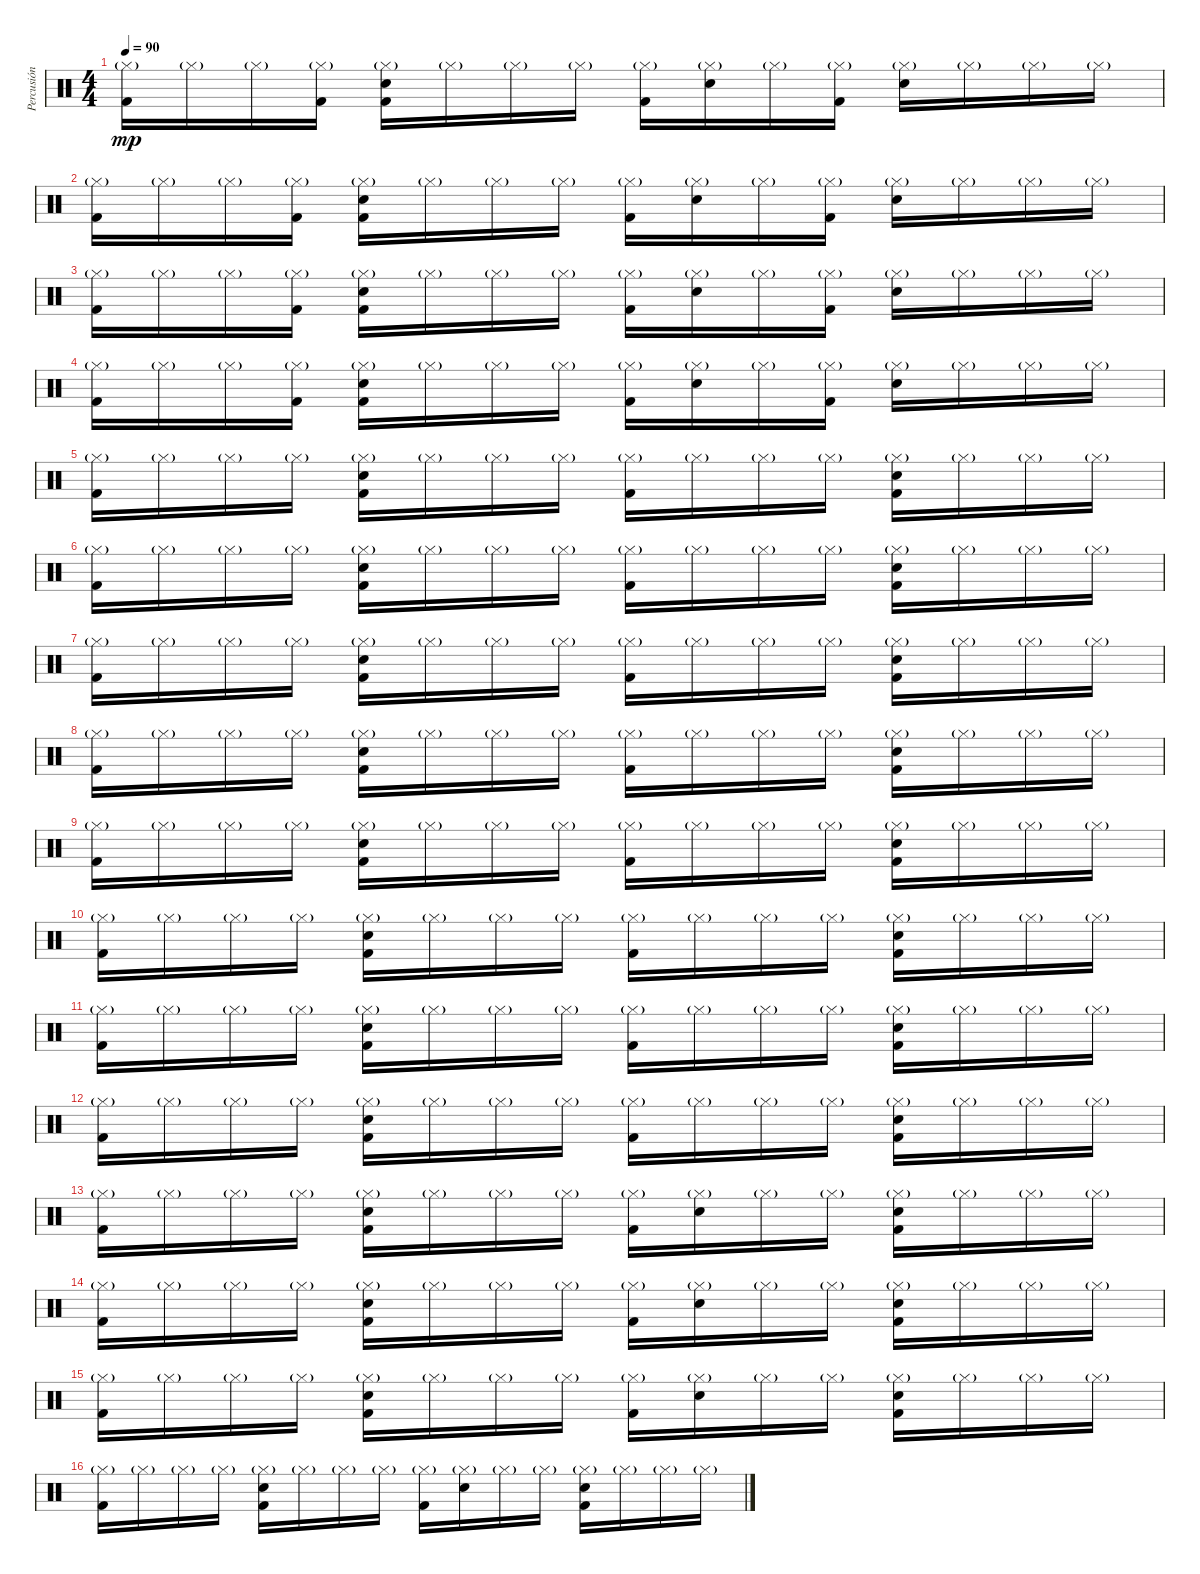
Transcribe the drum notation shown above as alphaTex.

\track ("Percusión" "Percusión") {instrument percussion}
\staff {score}
\articulation defaults
\ts (4 4)
\tempo 90
\clef neutral
\ks c
("Kick (hit) 2" "Hi-Hat (closed)"{g}).16{dy mp} "Hi-Hat (closed)"{g}.16 "Hi-Hat (closed)"{g}.16 ("Kick (hit) 2" "Hi-Hat (closed)"{g}).16 ("Kick (hit) 2" "Snare (hit) 2" "Hi-Hat (closed)"{g}).16 "Hi-Hat (closed)"{g}.16 "Hi-Hat (closed)"{g}.16 "Hi-Hat (closed)"{g}.16 ("Kick (hit) 2" "Hi-Hat (closed)"{g}).16 ("Snare (hit) 2" "Hi-Hat (closed)"{g}).16 "Hi-Hat (closed)"{g}.16 ("Kick (hit) 2" "Hi-Hat (closed)"{g}).16 ("Snare (hit) 2" "Hi-Hat (closed)"{g}).16 "Hi-Hat (closed)"{g}.16 "Hi-Hat (closed)"{g}.16 "Hi-Hat (closed)"{g}.16 |
("Kick (hit) 2" "Hi-Hat (closed)"{g}).16 "Hi-Hat (closed)"{g}.16 "Hi-Hat (closed)"{g}.16 ("Kick (hit) 2" "Hi-Hat (closed)"{g}).16 ("Kick (hit) 2" "Snare (hit) 2" "Hi-Hat (closed)"{g}).16 "Hi-Hat (closed)"{g}.16 "Hi-Hat (closed)"{g}.16 "Hi-Hat (closed)"{g}.16 ("Kick (hit) 2" "Hi-Hat (closed)"{g}).16 ("Snare (hit) 2" "Hi-Hat (closed)"{g}).16 "Hi-Hat (closed)"{g}.16 ("Kick (hit) 2" "Hi-Hat (closed)"{g}).16 ("Snare (hit) 2" "Hi-Hat (closed)"{g}).16 "Hi-Hat (closed)"{g}.16 "Hi-Hat (closed)"{g}.16 "Hi-Hat (closed)"{g}.16 |
("Kick (hit) 2" "Hi-Hat (closed)"{g}).16 "Hi-Hat (closed)"{g}.16 "Hi-Hat (closed)"{g}.16 ("Kick (hit) 2" "Hi-Hat (closed)"{g}).16 ("Kick (hit) 2" "Snare (hit) 2" "Hi-Hat (closed)"{g}).16 "Hi-Hat (closed)"{g}.16 "Hi-Hat (closed)"{g}.16 "Hi-Hat (closed)"{g}.16 ("Kick (hit) 2" "Hi-Hat (closed)"{g}).16 ("Snare (hit) 2" "Hi-Hat (closed)"{g}).16 "Hi-Hat (closed)"{g}.16 ("Kick (hit) 2" "Hi-Hat (closed)"{g}).16 ("Snare (hit) 2" "Hi-Hat (closed)"{g}).16 "Hi-Hat (closed)"{g}.16 "Hi-Hat (closed)"{g}.16 "Hi-Hat (closed)"{g}.16 |
("Kick (hit) 2" "Hi-Hat (closed)"{g}).16 "Hi-Hat (closed)"{g}.16 "Hi-Hat (closed)"{g}.16 ("Kick (hit) 2" "Hi-Hat (closed)"{g}).16 ("Kick (hit) 2" "Snare (hit) 2" "Hi-Hat (closed)"{g}).16 "Hi-Hat (closed)"{g}.16 "Hi-Hat (closed)"{g}.16 "Hi-Hat (closed)"{g}.16 ("Kick (hit) 2" "Hi-Hat (closed)"{g}).16 ("Snare (hit) 2" "Hi-Hat (closed)"{g}).16 "Hi-Hat (closed)"{g}.16 ("Kick (hit) 2" "Hi-Hat (closed)"{g}).16 ("Snare (hit) 2" "Hi-Hat (closed)"{g}).16 "Hi-Hat (closed)"{g}.16 "Hi-Hat (closed)"{g}.16 "Hi-Hat (closed)"{g}.16 |
("Kick (hit) 2" "Hi-Hat (closed)"{g}).16 "Hi-Hat (closed)"{g}.16 "Hi-Hat (closed)"{g}.16 "Hi-Hat (closed)"{g}.16 ("Kick (hit) 2" "Snare (hit) 2" "Hi-Hat (closed)"{g}).16 "Hi-Hat (closed)"{g}.16 "Hi-Hat (closed)"{g}.16 "Hi-Hat (closed)"{g}.16 ("Kick (hit) 2" "Hi-Hat (closed)"{g}).16 "Hi-Hat (closed)"{g}.16 "Hi-Hat (closed)"{g}.16 "Hi-Hat (closed)"{g}.16 ("Kick (hit) 2" "Snare (hit) 2" "Hi-Hat (closed)"{g}).16 "Hi-Hat (closed)"{g}.16 "Hi-Hat (closed)"{g}.16 "Hi-Hat (closed)"{g}.16 |
("Kick (hit) 2" "Hi-Hat (closed)"{g}).16 "Hi-Hat (closed)"{g}.16 "Hi-Hat (closed)"{g}.16 "Hi-Hat (closed)"{g}.16 ("Kick (hit) 2" "Snare (hit) 2" "Hi-Hat (closed)"{g}).16 "Hi-Hat (closed)"{g}.16 "Hi-Hat (closed)"{g}.16 "Hi-Hat (closed)"{g}.16 ("Kick (hit) 2" "Hi-Hat (closed)"{g}).16 "Hi-Hat (closed)"{g}.16 "Hi-Hat (closed)"{g}.16 "Hi-Hat (closed)"{g}.16 ("Kick (hit) 2" "Snare (hit) 2" "Hi-Hat (closed)"{g}).16 "Hi-Hat (closed)"{g}.16 "Hi-Hat (closed)"{g}.16 "Hi-Hat (closed)"{g}.16 |
("Kick (hit) 2" "Hi-Hat (closed)"{g}).16 "Hi-Hat (closed)"{g}.16 "Hi-Hat (closed)"{g}.16 "Hi-Hat (closed)"{g}.16 ("Kick (hit) 2" "Snare (hit) 2" "Hi-Hat (closed)"{g}).16 "Hi-Hat (closed)"{g}.16 "Hi-Hat (closed)"{g}.16 "Hi-Hat (closed)"{g}.16 ("Kick (hit) 2" "Hi-Hat (closed)"{g}).16 "Hi-Hat (closed)"{g}.16 "Hi-Hat (closed)"{g}.16 "Hi-Hat (closed)"{g}.16 ("Kick (hit) 2" "Snare (hit) 2" "Hi-Hat (closed)"{g}).16 "Hi-Hat (closed)"{g}.16 "Hi-Hat (closed)"{g}.16 "Hi-Hat (closed)"{g}.16 |
("Kick (hit) 2" "Hi-Hat (closed)"{g}).16 "Hi-Hat (closed)"{g}.16 "Hi-Hat (closed)"{g}.16 "Hi-Hat (closed)"{g}.16 ("Kick (hit) 2" "Snare (hit) 2" "Hi-Hat (closed)"{g}).16 "Hi-Hat (closed)"{g}.16 "Hi-Hat (closed)"{g}.16 "Hi-Hat (closed)"{g}.16 ("Kick (hit) 2" "Hi-Hat (closed)"{g}).16 "Hi-Hat (closed)"{g}.16 "Hi-Hat (closed)"{g}.16 "Hi-Hat (closed)"{g}.16 ("Kick (hit) 2" "Snare (hit) 2" "Hi-Hat (closed)"{g}).16 "Hi-Hat (closed)"{g}.16 "Hi-Hat (closed)"{g}.16 "Hi-Hat (closed)"{g}.16 |
("Kick (hit) 2" "Hi-Hat (closed)"{g}).16 "Hi-Hat (closed)"{g}.16 "Hi-Hat (closed)"{g}.16 "Hi-Hat (closed)"{g}.16 ("Kick (hit) 2" "Snare (hit) 2" "Hi-Hat (closed)"{g}).16 "Hi-Hat (closed)"{g}.16 "Hi-Hat (closed)"{g}.16 "Hi-Hat (closed)"{g}.16 ("Kick (hit) 2" "Hi-Hat (closed)"{g}).16 "Hi-Hat (closed)"{g}.16 "Hi-Hat (closed)"{g}.16 "Hi-Hat (closed)"{g}.16 ("Kick (hit) 2" "Snare (hit) 2" "Hi-Hat (closed)"{g}).16 "Hi-Hat (closed)"{g}.16 "Hi-Hat (closed)"{g}.16 "Hi-Hat (closed)"{g}.16 |
("Kick (hit) 2" "Hi-Hat (closed)"{g}).16 "Hi-Hat (closed)"{g}.16 "Hi-Hat (closed)"{g}.16 "Hi-Hat (closed)"{g}.16 ("Kick (hit) 2" "Snare (hit) 2" "Hi-Hat (closed)"{g}).16 "Hi-Hat (closed)"{g}.16 "Hi-Hat (closed)"{g}.16 "Hi-Hat (closed)"{g}.16 ("Kick (hit) 2" "Hi-Hat (closed)"{g}).16 "Hi-Hat (closed)"{g}.16 "Hi-Hat (closed)"{g}.16 "Hi-Hat (closed)"{g}.16 ("Kick (hit) 2" "Snare (hit) 2" "Hi-Hat (closed)"{g}).16 "Hi-Hat (closed)"{g}.16 "Hi-Hat (closed)"{g}.16 "Hi-Hat (closed)"{g}.16 |
("Kick (hit) 2" "Hi-Hat (closed)"{g}).16 "Hi-Hat (closed)"{g}.16 "Hi-Hat (closed)"{g}.16 "Hi-Hat (closed)"{g}.16 ("Kick (hit) 2" "Snare (hit) 2" "Hi-Hat (closed)"{g}).16 "Hi-Hat (closed)"{g}.16 "Hi-Hat (closed)"{g}.16 "Hi-Hat (closed)"{g}.16 ("Kick (hit) 2" "Hi-Hat (closed)"{g}).16 "Hi-Hat (closed)"{g}.16 "Hi-Hat (closed)"{g}.16 "Hi-Hat (closed)"{g}.16 ("Kick (hit) 2" "Snare (hit) 2" "Hi-Hat (closed)"{g}).16 "Hi-Hat (closed)"{g}.16 "Hi-Hat (closed)"{g}.16 "Hi-Hat (closed)"{g}.16 |
("Kick (hit) 2" "Hi-Hat (closed)"{g}).16 "Hi-Hat (closed)"{g}.16 "Hi-Hat (closed)"{g}.16 "Hi-Hat (closed)"{g}.16 ("Kick (hit) 2" "Snare (hit) 2" "Hi-Hat (closed)"{g}).16 "Hi-Hat (closed)"{g}.16 "Hi-Hat (closed)"{g}.16 "Hi-Hat (closed)"{g}.16 ("Kick (hit) 2" "Hi-Hat (closed)"{g}).16 "Hi-Hat (closed)"{g}.16 "Hi-Hat (closed)"{g}.16 "Hi-Hat (closed)"{g}.16 ("Kick (hit) 2" "Snare (hit) 2" "Hi-Hat (closed)"{g}).16 "Hi-Hat (closed)"{g}.16 "Hi-Hat (closed)"{g}.16 "Hi-Hat (closed)"{g}.16 |
("Kick (hit) 2" "Hi-Hat (closed)"{g}).16 "Hi-Hat (closed)"{g}.16 "Hi-Hat (closed)"{g}.16 "Hi-Hat (closed)"{g}.16 ("Kick (hit) 2" "Snare (hit) 2" "Hi-Hat (closed)"{g}).16 "Hi-Hat (closed)"{g}.16 "Hi-Hat (closed)"{g}.16 "Hi-Hat (closed)"{g}.16 ("Kick (hit) 2" "Hi-Hat (closed)"{g}).16 ("Snare (hit) 2" "Hi-Hat (closed)"{g}).16 "Hi-Hat (closed)"{g}.16 "Hi-Hat (closed)"{g}.16 ("Kick (hit) 2" "Snare (hit) 2" "Hi-Hat (closed)"{g}).16 "Hi-Hat (closed)"{g}.16 "Hi-Hat (closed)"{g}.16 "Hi-Hat (closed)"{g}.16 |
("Kick (hit) 2" "Hi-Hat (closed)"{g}).16 "Hi-Hat (closed)"{g}.16 "Hi-Hat (closed)"{g}.16 "Hi-Hat (closed)"{g}.16 ("Kick (hit) 2" "Snare (hit) 2" "Hi-Hat (closed)"{g}).16 "Hi-Hat (closed)"{g}.16 "Hi-Hat (closed)"{g}.16 "Hi-Hat (closed)"{g}.16 ("Kick (hit) 2" "Hi-Hat (closed)"{g}).16 ("Snare (hit) 2" "Hi-Hat (closed)"{g}).16 "Hi-Hat (closed)"{g}.16 "Hi-Hat (closed)"{g}.16 ("Kick (hit) 2" "Snare (hit) 2" "Hi-Hat (closed)"{g}).16 "Hi-Hat (closed)"{g}.16 "Hi-Hat (closed)"{g}.16 "Hi-Hat (closed)"{g}.16 |
("Kick (hit) 2" "Hi-Hat (closed)"{g}).16 "Hi-Hat (closed)"{g}.16 "Hi-Hat (closed)"{g}.16 "Hi-Hat (closed)"{g}.16 ("Kick (hit) 2" "Snare (hit) 2" "Hi-Hat (closed)"{g}).16 "Hi-Hat (closed)"{g}.16 "Hi-Hat (closed)"{g}.16 "Hi-Hat (closed)"{g}.16 ("Kick (hit) 2" "Hi-Hat (closed)"{g}).16 ("Snare (hit) 2" "Hi-Hat (closed)"{g}).16 "Hi-Hat (closed)"{g}.16 "Hi-Hat (closed)"{g}.16 ("Kick (hit) 2" "Snare (hit) 2" "Hi-Hat (closed)"{g}).16 "Hi-Hat (closed)"{g}.16 "Hi-Hat (closed)"{g}.16 "Hi-Hat (closed)"{g}.16 |
("Kick (hit) 2" "Hi-Hat (closed)"{g}).16 "Hi-Hat (closed)"{g}.16 "Hi-Hat (closed)"{g}.16 "Hi-Hat (closed)"{g}.16 ("Kick (hit) 2" "Snare (hit) 2" "Hi-Hat (closed)"{g}).16 "Hi-Hat (closed)"{g}.16 "Hi-Hat (closed)"{g}.16 "Hi-Hat (closed)"{g}.16 ("Kick (hit) 2" "Hi-Hat (closed)"{g}).16 ("Snare (hit) 2" "Hi-Hat (closed)"{g}).16 "Hi-Hat (closed)"{g}.16 "Hi-Hat (closed)"{g}.16 ("Kick (hit) 2" "Snare (hit) 2" "Hi-Hat (closed)"{g}).16 "Hi-Hat (closed)"{g}.16 "Hi-Hat (closed)"{g}.16 "Hi-Hat (closed)"{g}.16
